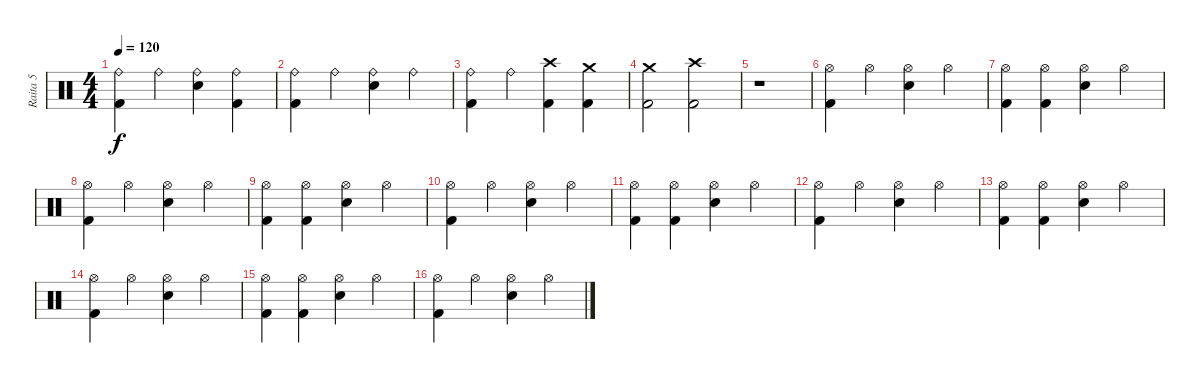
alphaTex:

\track ("Raita 5" "Raita 5") {instrument percussion}
\staff {score}
\articulation defaults
\ts (4 4)
\tempo 120
\clef neutral
\ks c
("Ride (bell)" "Kick (hit) 2").4{dy f} "Ride (bell)".4 ("Ride (bell)" "Snare (hit) 2").4 ("Ride (bell)" "Kick (hit) 2").4 |
("Ride (bell)" "Kick (hit) 2").4 "Ride (bell)".4 ("Ride (bell)" "Snare (hit) 2").4 "Ride (bell)".4 |
("Ride (bell)" "Kick (hit) 2").4 "Ride (bell)".4 ("Crash high (hit)" "Kick (hit) 2").4 ("Crash medium (hit)" "Kick (hit) 2").4 |
("Crash medium (hit)" "Kick (hit) 2").2 ("Crash high (hit)" "Kick (hit) 2").2 |
r.1 |
("Hi-Hat (open)" "Kick (hit) 2").4 "Hi-Hat (open)".4 ("Hi-Hat (open)" "Snare (hit) 2").4 "Hi-Hat (open)".4 |
("Hi-Hat (open)" "Kick (hit) 2").4 ("Hi-Hat (open)" "Kick (hit) 2").4 ("Hi-Hat (open)" "Snare (hit) 2").4 "Hi-Hat (open)".4 |
("Hi-Hat (open)" "Kick (hit) 2").4 "Hi-Hat (open)".4 ("Hi-Hat (open)" "Snare (hit) 2").4 "Hi-Hat (open)".4 |
("Hi-Hat (open)" "Kick (hit) 2").4 ("Hi-Hat (open)" "Kick (hit) 2").4 ("Hi-Hat (open)" "Snare (hit) 2").4 "Hi-Hat (open)".4 |
("Hi-Hat (open)" "Kick (hit) 2").4 "Hi-Hat (open)".4 ("Hi-Hat (open)" "Snare (hit) 2").4 "Hi-Hat (open)".4 |
("Hi-Hat (open)" "Kick (hit) 2").4 ("Hi-Hat (open)" "Kick (hit) 2").4 ("Hi-Hat (open)" "Snare (hit) 2").4 "Hi-Hat (open)".4 |
("Hi-Hat (open)" "Kick (hit) 2").4 "Hi-Hat (open)".4 ("Hi-Hat (open)" "Snare (hit) 2").4 "Hi-Hat (open)".4 |
("Hi-Hat (open)" "Kick (hit) 2").4 ("Hi-Hat (open)" "Kick (hit) 2").4 ("Hi-Hat (open)" "Snare (hit) 2").4 "Hi-Hat (open)".4 |
("Hi-Hat (open)" "Kick (hit) 2").4 "Hi-Hat (open)".4 ("Hi-Hat (open)" "Snare (hit) 2").4 "Hi-Hat (open)".4 |
("Hi-Hat (open)" "Kick (hit) 2").4 ("Hi-Hat (open)" "Kick (hit) 2").4 ("Hi-Hat (open)" "Snare (hit) 2").4 "Hi-Hat (open)".4 |
("Hi-Hat (open)" "Kick (hit) 2").4 "Hi-Hat (open)".4 ("Hi-Hat (open)" "Snare (hit) 2").4 "Hi-Hat (open)".4
